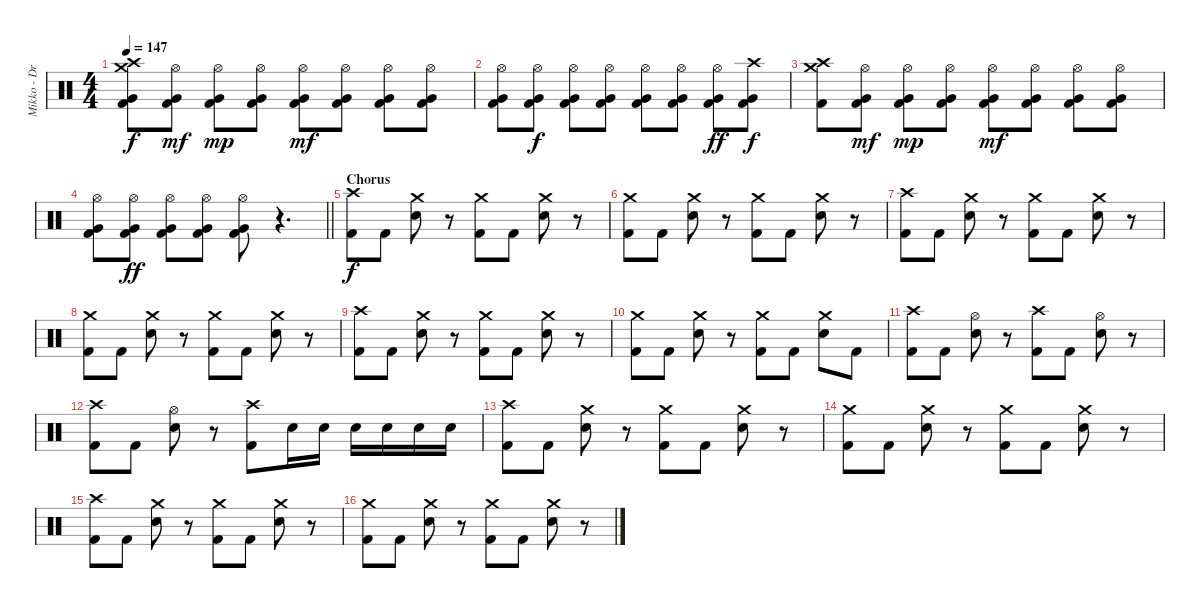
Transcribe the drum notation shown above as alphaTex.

\track ("Mikko - Drums" "Mikko - Dr") {instrument percussion}
\staff {score}
\articulation defaults
\ts (4 4)
\tempo 147
\clef neutral
\ks c
("Crash medium (hit)" "Crash high (hit)" "Very Low Tom (hit)" "Kick (hit) 2").8{dy f} ("Hi-Hat (open)" "Very Low Tom (hit)" "Kick (hit) 2").8{dy mf} ("Hi-Hat (open)" "Very Low Tom (hit)" "Kick (hit) 2").8{dy mp} ("Hi-Hat (open)" "Very Low Tom (hit)" "Kick (hit) 2").8 ("Hi-Hat (open)" "Very Low Tom (hit)" "Kick (hit) 2").8{dy mf} ("Hi-Hat (open)" "Very Low Tom (hit)" "Kick (hit) 2").8 ("Hi-Hat (open)" "Very Low Tom (hit)" "Kick (hit) 2").8 ("Hi-Hat (open)" "Very Low Tom (hit)" "Kick (hit) 2").8 |
("Hi-Hat (open)" "Very Low Tom (hit)" "Kick (hit) 2").8 ("Hi-Hat (open)" "Very Low Tom (hit)" "Kick (hit) 2").8{dy f} ("Hi-Hat (open)" "Very Low Tom (hit)" "Kick (hit) 2").8 ("Hi-Hat (open)" "Very Low Tom (hit)" "Kick (hit) 2").8 ("Hi-Hat (open)" "Very Low Tom (hit)" "Kick (hit) 2").8 ("Hi-Hat (open)" "Very Low Tom (hit)" "Kick (hit) 2").8 ("Hi-Hat (open)" "Very Low Tom (hit)" "Kick (hit) 2").8{dy ff} ("Crash high (hit)" "Very Low Tom (hit)" "Kick (hit) 2").8{dy f} |
("Crash medium (hit)" "Crash high (hit)" "Kick (hit) 2").8 ("Hi-Hat (open)" "Very Low Tom (hit)" "Kick (hit) 2").8{dy mf} ("Hi-Hat (open)" "Very Low Tom (hit)" "Kick (hit) 2").8{dy mp} ("Hi-Hat (open)" "Very Low Tom (hit)" "Kick (hit) 2").8 ("Hi-Hat (open)" "Very Low Tom (hit)" "Kick (hit) 2").8{dy mf} ("Hi-Hat (open)" "Very Low Tom (hit)" "Kick (hit) 2").8 ("Hi-Hat (open)" "Very Low Tom (hit)" "Kick (hit) 2").8 ("Hi-Hat (open)" "Very Low Tom (hit)" "Kick (hit) 2").8 |
\barLineRight lightlight
("Hi-Hat (open)" "Very Low Tom (hit)" "Kick (hit) 2").8 ("Hi-Hat (open)" "Very Low Tom (hit)" "Kick (hit) 2").8{dy ff} ("Hi-Hat (open)" "Very Low Tom (hit)" "Kick (hit) 2").8 ("Hi-Hat (open)" "Very Low Tom (hit)" "Kick (hit) 2").8 ("Hi-Hat (open)" "Very Low Tom (hit)" "Kick (hit) 2").8 r.4{d} |
\section ("" "Chorus")
("Crash high (hit)" "Kick (hit) 2").8{dy f} "Kick (hit) 2".8 ("Crash medium (hit)" "Snare (hit) 2").8 r.8 ("Crash medium (hit)" "Kick (hit) 2").8 "Kick (hit) 2".8 ("Crash medium (hit)" "Snare (hit) 2").8 r.8 |
("Crash medium (hit)" "Kick (hit) 2").8 "Kick (hit) 2".8 ("Crash medium (hit)" "Snare (hit) 2").8 r.8 ("Crash medium (hit)" "Kick (hit) 2").8 "Kick (hit) 2".8 ("Crash medium (hit)" "Snare (hit) 2").8 r.8 |
("Crash high (hit)" "Kick (hit) 2").8 "Kick (hit) 2".8 ("Crash medium (hit)" "Snare (hit) 2").8 r.8 ("Crash medium (hit)" "Kick (hit) 2").8 "Kick (hit) 2".8 ("Crash medium (hit)" "Snare (hit) 2").8 r.8 |
("Crash medium (hit)" "Kick (hit) 2").8 "Kick (hit) 2".8 ("Crash medium (hit)" "Snare (hit) 2").8 r.8 ("Crash medium (hit)" "Kick (hit) 2").8 "Kick (hit) 2".8 ("Crash medium (hit)" "Snare (hit) 2").8 r.8 |
("Crash high (hit)" "Kick (hit) 2").8 "Kick (hit) 2".8 ("Crash medium (hit)" "Snare (hit) 2").8 r.8 ("Crash medium (hit)" "Kick (hit) 2").8 "Kick (hit) 2".8 ("Crash medium (hit)" "Snare (hit) 2").8 r.8 |
("Crash medium (hit)" "Kick (hit) 2").8 "Kick (hit) 2".8 ("Crash medium (hit)" "Snare (hit) 2").8 r.8 ("Crash medium (hit)" "Kick (hit) 2").8 "Kick (hit) 2".8 ("Crash medium (hit)" "Snare (hit) 2").8 "Kick (hit) 2".8 |
("Crash high (hit)" "Kick (hit) 2").8 "Kick (hit) 2".8 ("Hi-Hat (open)" "Snare (hit) 2").8 r.8 ("Crash high (hit)" "Kick (hit) 2").8 "Kick (hit) 2".8 ("Hi-Hat (open)" "Snare (hit) 2").8 r.8 |
("Crash high (hit)" "Kick (hit) 2").8 "Kick (hit) 2".8 ("Hi-Hat (open)" "Snare (hit) 2").8 r.8 ("Crash high (hit)" "Kick (hit) 2").8 "Snare (hit) 2".16 "Snare (hit) 2".16 "Snare (hit) 2".16 "Snare (hit) 2".16 "Snare (hit) 2".16 "Snare (hit) 2".16 |
("Crash high (hit)" "Kick (hit) 2").8 "Kick (hit) 2".8 ("Crash medium (hit)" "Snare (hit) 2").8 r.8 ("Crash medium (hit)" "Kick (hit) 2").8 "Kick (hit) 2".8 ("Crash medium (hit)" "Snare (hit) 2").8 r.8 |
("Crash medium (hit)" "Kick (hit) 2").8 "Kick (hit) 2".8 ("Crash medium (hit)" "Snare (hit) 2").8 r.8 ("Crash medium (hit)" "Kick (hit) 2").8 "Kick (hit) 2".8 ("Crash medium (hit)" "Snare (hit) 2").8 r.8 |
("Crash high (hit)" "Kick (hit) 2").8 "Kick (hit) 2".8 ("Crash medium (hit)" "Snare (hit) 2").8 r.8 ("Crash medium (hit)" "Kick (hit) 2").8 "Kick (hit) 2".8 ("Crash medium (hit)" "Snare (hit) 2").8 r.8 |
("Crash medium (hit)" "Kick (hit) 2").8 "Kick (hit) 2".8 ("Crash medium (hit)" "Snare (hit) 2").8 r.8 ("Crash medium (hit)" "Kick (hit) 2").8 "Kick (hit) 2".8 ("Crash medium (hit)" "Snare (hit) 2").8 r.8
